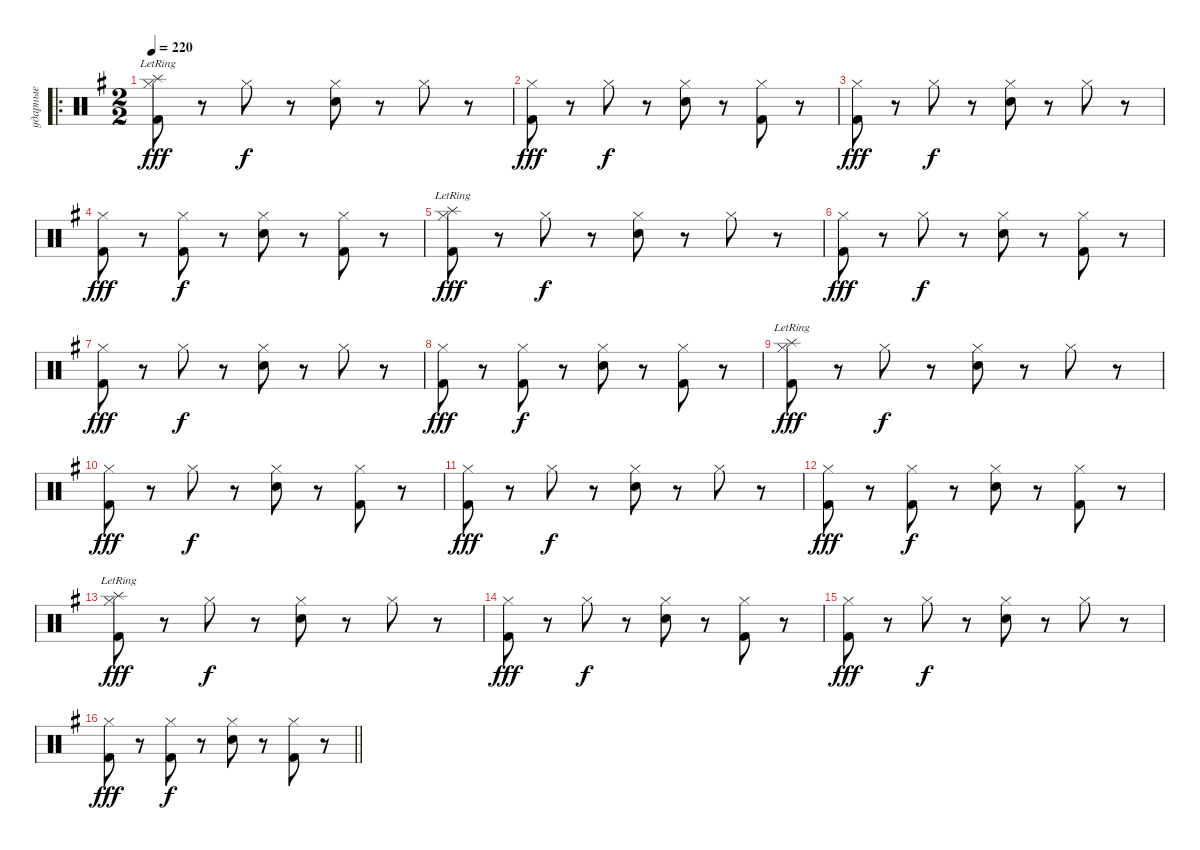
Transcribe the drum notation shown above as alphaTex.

\track ("ударные" "ударные") {instrument percussion}
\staff {score}
\articulation defaults
\ro
\ts (2 2)
\section ("" "")
\tempo 220
\clef neutral
\ks eminor
("Hi-Hat (closed)" "Splash (hit)"{lr} "Kick (hit) 2").8{dy fff} r.8 "Hi-Hat (closed)".8{dy f} r.8 ("Hi-Hat (closed)" "Snare (hit) 2").8 r.8 "Hi-Hat (closed)".8 r.8 |
("Hi-Hat (closed)" "Kick (hit) 2").8{dy fff} r.8 "Hi-Hat (closed)".8{dy f} r.8 ("Hi-Hat (closed)" "Snare (hit) 2").8 r.8 ("Hi-Hat (closed)" "Kick (hit) 2").8 r.8 |
("Hi-Hat (closed)" "Kick (hit) 2").8{dy fff} r.8 "Hi-Hat (closed)".8{dy f} r.8 ("Hi-Hat (closed)" "Snare (hit) 2").8 r.8 "Hi-Hat (closed)".8 r.8 |
("Hi-Hat (closed)" "Kick (hit) 2").8{dy fff} r.8 ("Hi-Hat (closed)" "Kick (hit) 2").8{dy f} r.8 ("Hi-Hat (closed)" "Snare (hit) 2").8 r.8 ("Hi-Hat (closed)" "Kick (hit) 2").8 r.8 |
("Hi-Hat (closed)" "Splash (hit)"{lr} "Kick (hit) 2").8{dy fff} r.8 "Hi-Hat (closed)".8{dy f} r.8 ("Hi-Hat (closed)" "Snare (hit) 2").8 r.8 "Hi-Hat (closed)".8 r.8 |
("Hi-Hat (closed)" "Kick (hit) 2").8{dy fff} r.8 "Hi-Hat (closed)".8{dy f} r.8 ("Hi-Hat (closed)" "Snare (hit) 2").8 r.8 ("Hi-Hat (closed)" "Kick (hit) 2").8 r.8 |
("Hi-Hat (closed)" "Kick (hit) 2").8{dy fff} r.8 "Hi-Hat (closed)".8{dy f} r.8 ("Hi-Hat (closed)" "Snare (hit) 2").8 r.8 "Hi-Hat (closed)".8 r.8 |
("Hi-Hat (closed)" "Kick (hit) 2").8{dy fff} r.8 ("Hi-Hat (closed)" "Kick (hit) 2").8{dy f} r.8 ("Hi-Hat (closed)" "Snare (hit) 2").8 r.8 ("Hi-Hat (closed)" "Kick (hit) 2").8 r.8 |
("Hi-Hat (closed)" "Splash (hit)"{lr} "Kick (hit) 2").8{dy fff} r.8 "Hi-Hat (closed)".8{dy f} r.8 ("Hi-Hat (closed)" "Snare (hit) 2").8 r.8 "Hi-Hat (closed)".8 r.8 |
("Hi-Hat (closed)" "Kick (hit) 2").8{dy fff} r.8 "Hi-Hat (closed)".8{dy f} r.8 ("Hi-Hat (closed)" "Snare (hit) 2").8 r.8 ("Hi-Hat (closed)" "Kick (hit) 2").8 r.8 |
("Hi-Hat (closed)" "Kick (hit) 2").8{dy fff} r.8 "Hi-Hat (closed)".8{dy f} r.8 ("Hi-Hat (closed)" "Snare (hit) 2").8 r.8 "Hi-Hat (closed)".8 r.8 |
("Hi-Hat (closed)" "Kick (hit) 2").8{dy fff} r.8 ("Hi-Hat (closed)" "Kick (hit) 2").8{dy f} r.8 ("Hi-Hat (closed)" "Snare (hit) 2").8 r.8 ("Hi-Hat (closed)" "Kick (hit) 2").8 r.8 |
("Hi-Hat (closed)" "Splash (hit)"{lr} "Kick (hit) 2").8{dy fff} r.8 "Hi-Hat (closed)".8{dy f} r.8 ("Hi-Hat (closed)" "Snare (hit) 2").8 r.8 "Hi-Hat (closed)".8 r.8 |
("Hi-Hat (closed)" "Kick (hit) 2").8{dy fff} r.8 "Hi-Hat (closed)".8{dy f} r.8 ("Hi-Hat (closed)" "Snare (hit) 2").8 r.8 ("Hi-Hat (closed)" "Kick (hit) 2").8 r.8 |
("Hi-Hat (closed)" "Kick (hit) 2").8{dy fff} r.8 "Hi-Hat (closed)".8{dy f} r.8 ("Hi-Hat (closed)" "Snare (hit) 2").8 r.8 "Hi-Hat (closed)".8 r.8 |
\barLineRight lightlight
("Hi-Hat (closed)" "Kick (hit) 2").8{dy fff} r.8 ("Hi-Hat (closed)" "Kick (hit) 2").8{dy f} r.8 ("Hi-Hat (closed)" "Snare (hit) 2").8 r.8 ("Hi-Hat (closed)" "Kick (hit) 2").8 r.8
